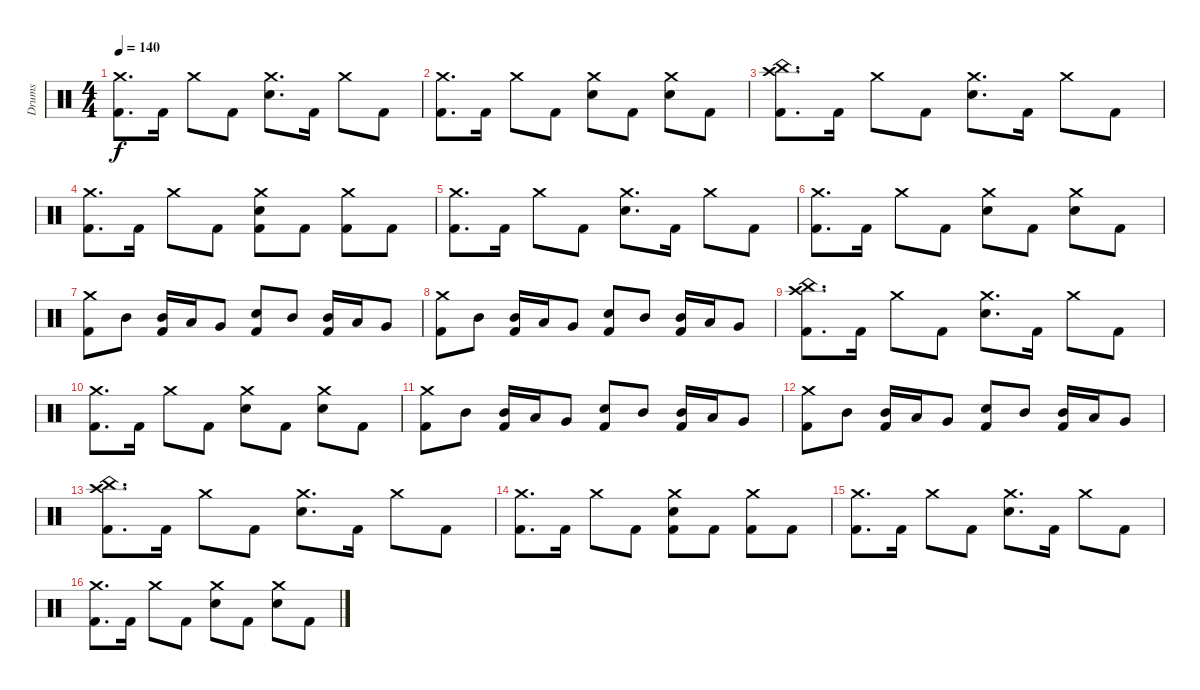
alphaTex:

\track ("Drums" "Drums") {instrument percussion}
\staff {score}
\articulation defaults
\ts (4 4)
\tempo 140
\clef neutral
\ks c
("Crash medium (hit)" "Kick (hit) 2").8{d dy f} "Kick (hit) 2".16 "Crash medium (hit)".8 "Kick (hit) 2".8 ("Crash medium (hit)" "Snare (hit) 2").8{d} "Kick (hit) 2".16 "Crash medium (hit)".8 "Kick (hit) 2".8 |
("Crash medium (hit)" "Kick (hit) 2").8{d} "Kick (hit) 2".16 "Crash medium (hit)".8 "Kick (hit) 2".8 ("Crash medium (hit)" "Snare (hit) 2").8 "Kick (hit) 2".8 ("Crash medium (hit)" "Snare (hit) 2").8 "Kick (hit) 2".8 |
("Crash high (hit)" "China (hit)" "Kick (hit) 2").8{d} "Kick (hit) 2".16 "Crash medium (hit)".8 "Kick (hit) 2".8 ("Crash medium (hit)" "Snare (hit) 2").8{d} "Kick (hit) 2".16 "Crash medium (hit)".8 "Kick (hit) 2".8 |
("Crash medium (hit)" "Kick (hit) 2").8{d} "Kick (hit) 2".16 "Crash medium (hit)".8 "Kick (hit) 2".8 ("Crash medium (hit)" "Snare (hit) 2" "Kick (hit) 2").8 "Kick (hit) 2".8 ("Crash medium (hit)" "Kick (hit) 2").8 "Kick (hit) 2".8 |
("Crash medium (hit)" "Kick (hit) 2").8{d} "Kick (hit) 2".16 "Crash medium (hit)".8 "Kick (hit) 2".8 ("Crash medium (hit)" "Snare (hit) 2").8{d} "Kick (hit) 2".16 "Crash medium (hit)".8 "Kick (hit) 2".8 |
("Crash medium (hit)" "Kick (hit) 2").8{d} "Kick (hit) 2".16 "Crash medium (hit)".8 "Kick (hit) 2".8 ("Crash medium (hit)" "Snare (hit) 2").8 "Kick (hit) 2".8 ("Crash medium (hit)" "Snare (hit) 2").8 "Kick (hit) 2".8 |
("Crash medium (hit)" "Kick (hit) 2").8 "Mid Tom (hit)".8 ("Mid Tom (hit)" "Kick (hit) 2").16 "Low Tom (hit)".16 "Very Low Tom (hit)".8 ("Snare (hit) 2" "Kick (hit) 2").8 "Mid Tom (hit)".8 ("Mid Tom (hit)" "Kick (hit) 2").16 "Low Tom (hit)".16 "Very Low Tom (hit)".8 |
("Crash medium (hit)" "Kick (hit) 2").8 "Mid Tom (hit)".8 ("Mid Tom (hit)" "Kick (hit) 2").16 "Low Tom (hit)".16 "Very Low Tom (hit)".8 ("Snare (hit) 2" "Kick (hit) 2").8 "Mid Tom (hit)".8 ("Mid Tom (hit)" "Kick (hit) 2").16 "Low Tom (hit)".16 "Very Low Tom (hit)".8 |
("Crash high (hit)" "China (hit)" "Kick (hit) 2").8{d} "Kick (hit) 2".16 "Crash medium (hit)".8 "Kick (hit) 2".8 ("Crash medium (hit)" "Snare (hit) 2").8{d} "Kick (hit) 2".16 "Crash medium (hit)".8 "Kick (hit) 2".8 |
("Crash medium (hit)" "Kick (hit) 2").8{d} "Kick (hit) 2".16 "Crash medium (hit)".8 "Kick (hit) 2".8 ("Crash medium (hit)" "Snare (hit) 2").8 "Kick (hit) 2".8 ("Crash medium (hit)" "Snare (hit) 2").8 "Kick (hit) 2".8 |
("Crash medium (hit)" "Kick (hit) 2").8 "Mid Tom (hit)".8 ("Mid Tom (hit)" "Kick (hit) 2").16 "Low Tom (hit)".16 "Very Low Tom (hit)".8 ("Snare (hit) 2" "Kick (hit) 2").8 "Mid Tom (hit)".8 ("Mid Tom (hit)" "Kick (hit) 2").16 "Low Tom (hit)".16 "Very Low Tom (hit)".8 |
("Crash medium (hit)" "Kick (hit) 2").8 "Mid Tom (hit)".8 ("Mid Tom (hit)" "Kick (hit) 2").16 "Low Tom (hit)".16 "Very Low Tom (hit)".8 ("Snare (hit) 2" "Kick (hit) 2").8 "Mid Tom (hit)".8 ("Mid Tom (hit)" "Kick (hit) 2").16 "Low Tom (hit)".16 "Very Low Tom (hit)".8 |
("Crash high (hit)" "China (hit)" "Kick (hit) 2").8{d} "Kick (hit) 2".16 "Crash medium (hit)".8 "Kick (hit) 2".8 ("Crash medium (hit)" "Snare (hit) 2").8{d} "Kick (hit) 2".16 "Crash medium (hit)".8 "Kick (hit) 2".8 |
("Crash medium (hit)" "Kick (hit) 2").8{d} "Kick (hit) 2".16 "Crash medium (hit)".8 "Kick (hit) 2".8 ("Crash medium (hit)" "Snare (hit) 2" "Kick (hit) 2").8 "Kick (hit) 2".8 ("Crash medium (hit)" "Kick (hit) 2").8 "Kick (hit) 2".8 |
("Crash medium (hit)" "Kick (hit) 2").8{d} "Kick (hit) 2".16 "Crash medium (hit)".8 "Kick (hit) 2".8 ("Crash medium (hit)" "Snare (hit) 2").8{d} "Kick (hit) 2".16 "Crash medium (hit)".8 "Kick (hit) 2".8 |
("Crash medium (hit)" "Kick (hit) 2").8{d} "Kick (hit) 2".16 "Crash medium (hit)".8 "Kick (hit) 2".8 ("Crash medium (hit)" "Snare (hit) 2").8 "Kick (hit) 2".8 ("Crash medium (hit)" "Snare (hit) 2").8 "Kick (hit) 2".8
